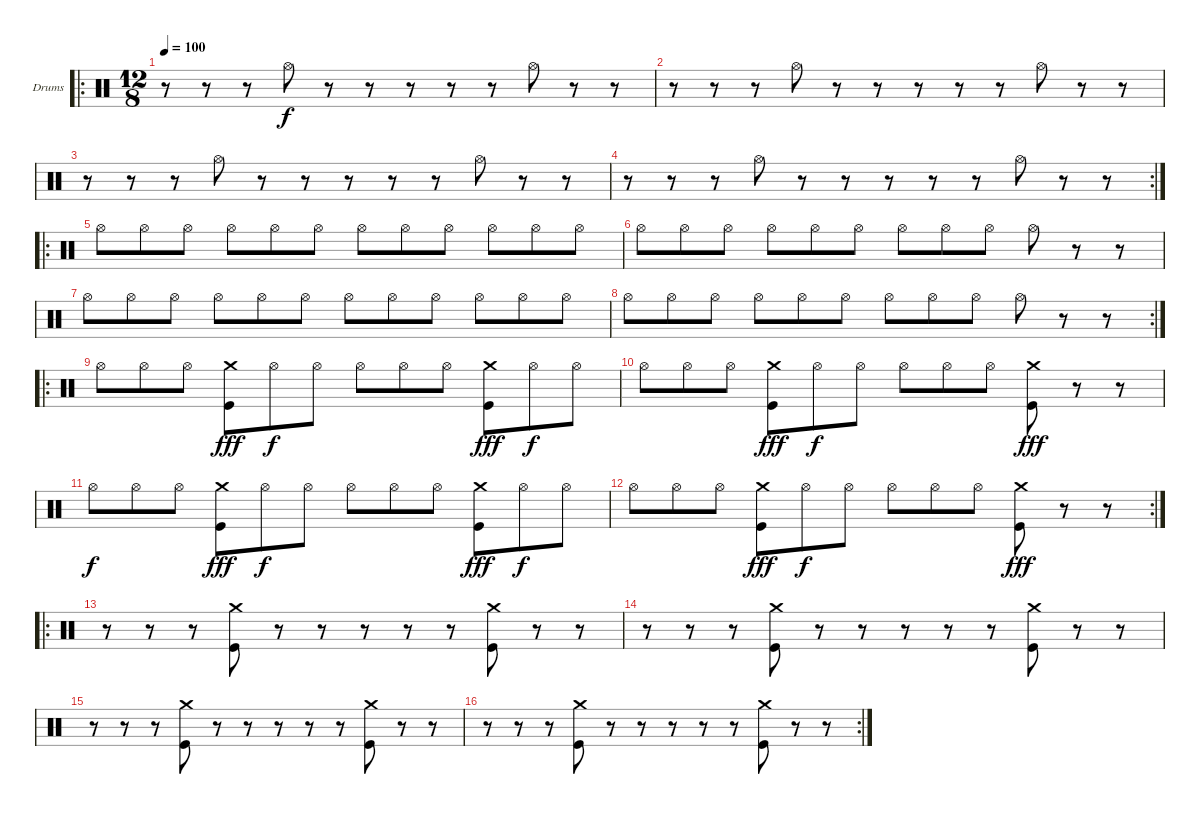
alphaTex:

\bracketExtendMode groupsimilarinstruments
\firstSystemTrackNameOrientation horizontal
\otherSystemsTrackNameOrientation horizontal
\track ("Сеня(Drumkit)" "Drums") {instrument percussion}
\staff {score}
\articulation defaults
\ro
\ts (12 8)
\tempo 100
\clef neutral
\ks c
r.8{dy f} r.8 r.8 "Hi-Hat (open)".8 r.8 r.8 r.8 r.8 r.8 "Hi-Hat (open)".8 r.8 r.8 |
r.8 r.8 r.8 "Hi-Hat (open)".8 r.8 r.8 r.8 r.8 r.8 "Hi-Hat (open)".8 r.8 r.8 |
r.8 r.8 r.8 "Hi-Hat (open)".8 r.8 r.8 r.8 r.8 r.8 "Hi-Hat (open)".8 r.8 r.8 |
\rc 2
r.8 r.8 r.8 "Hi-Hat (open)".8 r.8 r.8 r.8 r.8 r.8 "Hi-Hat (open)".8 r.8 r.8 |
\ro "Hi-Hat (open)".8 "Hi-Hat (open)".8 "Hi-Hat (open)".8 "Hi-Hat (open)".8 "Hi-Hat (open)".8 "Hi-Hat (open)".8 "Hi-Hat (open)".8 "Hi-Hat (open)".8 "Hi-Hat (open)".8 "Hi-Hat (open)".8 "Hi-Hat (open)".8 "Hi-Hat (open)".8
|
"Hi-Hat (open)".8 "Hi-Hat (open)".8 "Hi-Hat (open)".8 "Hi-Hat (open)".8 "Hi-Hat (open)".8 "Hi-Hat (open)".8 "Hi-Hat (open)".8 "Hi-Hat (open)".8 "Hi-Hat (open)".8 "Hi-Hat (open)".8 r.8 r.8 |
"Hi-Hat (open)".8 "Hi-Hat (open)".8 "Hi-Hat (open)".8 "Hi-Hat (open)".8 "Hi-Hat (open)".8 "Hi-Hat (open)".8 "Hi-Hat (open)".8 "Hi-Hat (open)".8 "Hi-Hat (open)".8 "Hi-Hat (open)".8 "Hi-Hat (open)".8 "Hi-Hat (open)".8 |
\rc 2 "Hi-Hat (open)".8 "Hi-Hat (open)".8 "Hi-Hat (open)".8 "Hi-Hat (open)".8 "Hi-Hat (open)".8 "Hi-Hat (open)".8 "Hi-Hat (open)".8 "Hi-Hat (open)".8 "Hi-Hat (open)".8 "Hi-Hat (open)".8
r.8 r.8 |
\ro "Hi-Hat (open)".8 "Hi-Hat (open)".8 "Hi-Hat (open)".8
("Crash medium (hit)" "Kick (hit)").8{dy fff} "Hi-Hat (open)".8{dy f} "Hi-Hat (open)".8 "Hi-Hat (open)".8 "Hi-Hat (open)".8 "Hi-Hat (open)".8 ("Crash medium (hit)" "Kick (hit)").8{dy fff} "Hi-Hat (open)".8{dy f} "Hi-Hat (open)".8 |
"Hi-Hat (open)".8 "Hi-Hat (open)".8 "Hi-Hat (open)".8 ("Crash medium (hit)" "Kick (hit)").8{dy fff} "Hi-Hat (open)".8{dy f} "Hi-Hat (open)".8 "Hi-Hat (open)".8 "Hi-Hat (open)".8 "Hi-Hat (open)".8 ("Crash medium (hit)" "Kick (hit)").8{dy fff} r.8 r.8 |
"Hi-Hat (open)".8{dy f} "Hi-Hat (open)".8 "Hi-Hat (open)".8 ("Crash medium (hit)" "Kick (hit)").8{dy fff} "Hi-Hat (open)".8{dy f} "Hi-Hat (open)".8 "Hi-Hat (open)".8 "Hi-Hat (open)".8 "Hi-Hat (open)".8 ("Crash medium (hit)" "Kick (hit)").8{dy fff} "Hi-Hat (open)".8{dy f} "Hi-Hat (open)".8 |
\rc 2 "Hi-Hat (open)".8 "Hi-Hat (open)".8 "Hi-Hat (open)".8
("Crash medium (hit)" "Kick (hit)").8{dy fff} "Hi-Hat (open)".8{dy f} "Hi-Hat (open)".8 "Hi-Hat (open)".8 "Hi-Hat (open)".8 "Hi-Hat (open)".8 ("Crash medium (hit)" "Kick (hit)").8{dy fff} r.8 r.8 |
\ro
r.8 r.8 r.8 ("Crash medium (hit)" "Kick (hit)").8 r.8 r.8 r.8 r.8 r.8 ("Crash medium (hit)" "Kick (hit)").8 r.8 r.8 |
r.8 r.8 r.8 ("Crash medium (hit)" "Kick (hit)").8 r.8 r.8 r.8 r.8 r.8 ("Crash medium (hit)" "Kick (hit)").8 r.8 r.8 |
r.8 r.8 r.8 ("Crash medium (hit)" "Kick (hit)").8 r.8 r.8 r.8 r.8 r.8 ("Crash medium (hit)" "Kick (hit)").8 r.8 r.8 |
\rc 2
r.8 r.8 r.8 ("Crash medium (hit)" "Kick (hit)").8 r.8 r.8 r.8 r.8 r.8 ("Crash medium (hit)" "Kick (hit)").8 r.8 r.8
